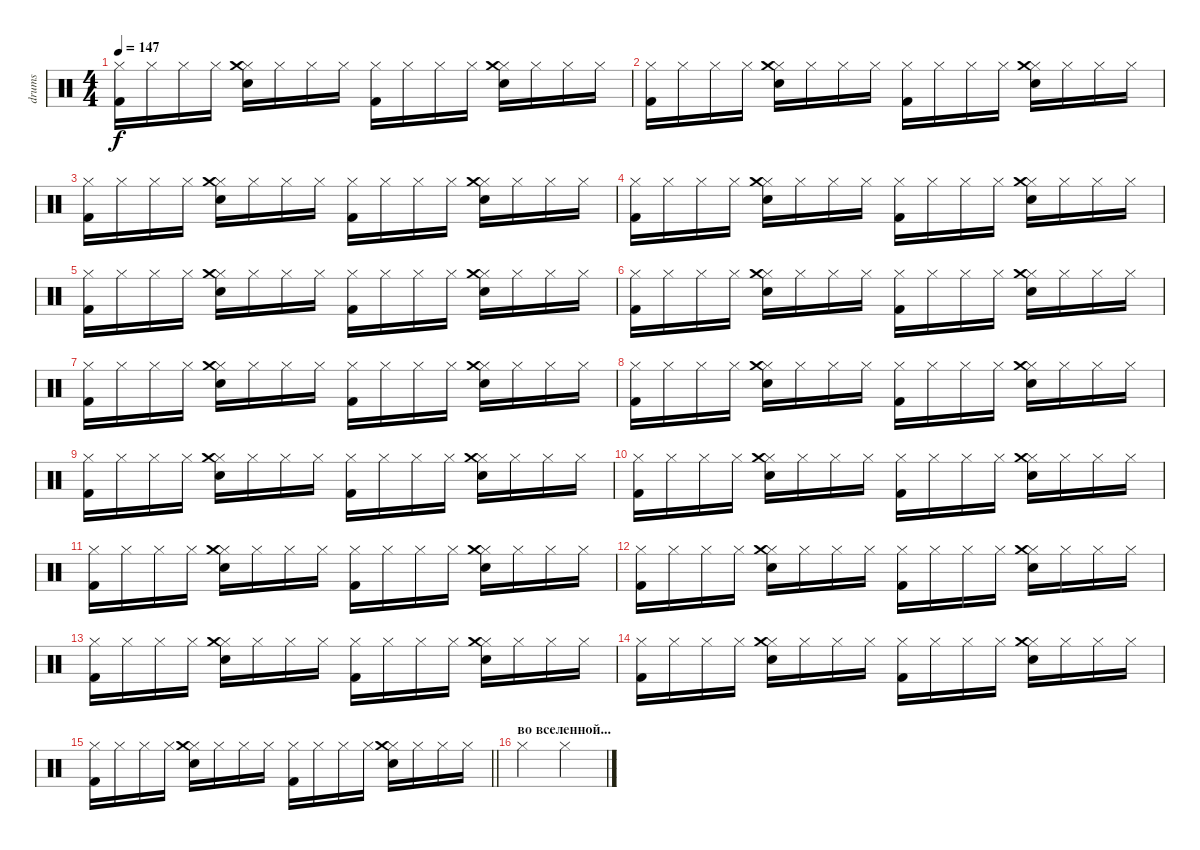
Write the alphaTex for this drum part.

\track ("drums" "drums") {instrument percussion}
\staff {score}
\articulation defaults
\ts (4 4)
\tempo 147
\clef neutral
\ks c
("Hi-Hat (closed)" "Kick (hit) 2").16{dy f} "Hi-Hat (closed)".16 "Hi-Hat (closed)".16 "Hi-Hat (closed)".16 ("Hi-Hat (closed)" "Snare (hit) 2" "Crash medium (hit)").16 "Hi-Hat (closed)".16 "Hi-Hat (closed)".16 "Hi-Hat (closed)".16 ("Hi-Hat (closed)" "Kick (hit) 2").16 "Hi-Hat (closed)".16 "Hi-Hat (closed)".16 "Hi-Hat (closed)".16 ("Hi-Hat (closed)" "Snare (hit) 2" "Crash medium (hit)").16 "Hi-Hat (closed)".16 "Hi-Hat (closed)".16 "Hi-Hat (closed)".16 |
("Hi-Hat (closed)" "Kick (hit) 2").16 "Hi-Hat (closed)".16 "Hi-Hat (closed)".16 "Hi-Hat (closed)".16 ("Hi-Hat (closed)" "Snare (hit) 2" "Crash medium (hit)").16 "Hi-Hat (closed)".16 "Hi-Hat (closed)".16 "Hi-Hat (closed)".16 ("Hi-Hat (closed)" "Kick (hit) 2").16 "Hi-Hat (closed)".16 "Hi-Hat (closed)".16 "Hi-Hat (closed)".16 ("Hi-Hat (closed)" "Snare (hit) 2" "Crash medium (hit)").16 "Hi-Hat (closed)".16 "Hi-Hat (closed)".16 "Hi-Hat (closed)".16 |
("Hi-Hat (closed)" "Kick (hit) 2").16 "Hi-Hat (closed)".16 "Hi-Hat (closed)".16 "Hi-Hat (closed)".16 ("Hi-Hat (closed)" "Snare (hit) 2" "Crash medium (hit)").16 "Hi-Hat (closed)".16 "Hi-Hat (closed)".16 "Hi-Hat (closed)".16 ("Hi-Hat (closed)" "Kick (hit) 2").16 "Hi-Hat (closed)".16 "Hi-Hat (closed)".16 "Hi-Hat (closed)".16 ("Hi-Hat (closed)" "Snare (hit) 2" "Crash medium (hit)").16 "Hi-Hat (closed)".16 "Hi-Hat (closed)".16 "Hi-Hat (closed)".16 |
("Hi-Hat (closed)" "Kick (hit) 2").16 "Hi-Hat (closed)".16 "Hi-Hat (closed)".16 "Hi-Hat (closed)".16 ("Hi-Hat (closed)" "Snare (hit) 2" "Crash medium (hit)").16 "Hi-Hat (closed)".16 "Hi-Hat (closed)".16 "Hi-Hat (closed)".16 ("Hi-Hat (closed)" "Kick (hit) 2").16 "Hi-Hat (closed)".16 "Hi-Hat (closed)".16 "Hi-Hat (closed)".16 ("Hi-Hat (closed)" "Snare (hit) 2" "Crash medium (hit)").16 "Hi-Hat (closed)".16 "Hi-Hat (closed)".16 "Hi-Hat (closed)".16 |
("Hi-Hat (closed)" "Kick (hit) 2").16 "Hi-Hat (closed)".16 "Hi-Hat (closed)".16 "Hi-Hat (closed)".16 ("Hi-Hat (closed)" "Snare (hit) 2" "Crash medium (hit)").16 "Hi-Hat (closed)".16 "Hi-Hat (closed)".16 "Hi-Hat (closed)".16 ("Hi-Hat (closed)" "Kick (hit) 2").16 "Hi-Hat (closed)".16 "Hi-Hat (closed)".16 "Hi-Hat (closed)".16 ("Hi-Hat (closed)" "Snare (hit) 2" "Crash medium (hit)").16 "Hi-Hat (closed)".16 "Hi-Hat (closed)".16 "Hi-Hat (closed)".16 |
("Hi-Hat (closed)" "Kick (hit) 2").16 "Hi-Hat (closed)".16 "Hi-Hat (closed)".16 "Hi-Hat (closed)".16 ("Hi-Hat (closed)" "Snare (hit) 2" "Crash medium (hit)").16 "Hi-Hat (closed)".16 "Hi-Hat (closed)".16 "Hi-Hat (closed)".16 ("Hi-Hat (closed)" "Kick (hit) 2").16 "Hi-Hat (closed)".16 "Hi-Hat (closed)".16 "Hi-Hat (closed)".16 ("Hi-Hat (closed)" "Snare (hit) 2" "Crash medium (hit)").16 "Hi-Hat (closed)".16 "Hi-Hat (closed)".16 "Hi-Hat (closed)".16 |
("Hi-Hat (closed)" "Kick (hit) 2").16 "Hi-Hat (closed)".16 "Hi-Hat (closed)".16 "Hi-Hat (closed)".16 ("Hi-Hat (closed)" "Snare (hit) 2" "Crash medium (hit)").16 "Hi-Hat (closed)".16 "Hi-Hat (closed)".16 "Hi-Hat (closed)".16 ("Hi-Hat (closed)" "Kick (hit) 2").16 "Hi-Hat (closed)".16 "Hi-Hat (closed)".16 "Hi-Hat (closed)".16 ("Hi-Hat (closed)" "Snare (hit) 2" "Crash medium (hit)").16 "Hi-Hat (closed)".16 "Hi-Hat (closed)".16 "Hi-Hat (closed)".16 |
("Hi-Hat (closed)" "Kick (hit) 2").16 "Hi-Hat (closed)".16 "Hi-Hat (closed)".16 "Hi-Hat (closed)".16 ("Hi-Hat (closed)" "Snare (hit) 2" "Crash medium (hit)").16 "Hi-Hat (closed)".16 "Hi-Hat (closed)".16 "Hi-Hat (closed)".16 ("Hi-Hat (closed)" "Kick (hit) 2").16 "Hi-Hat (closed)".16 "Hi-Hat (closed)".16 "Hi-Hat (closed)".16 ("Hi-Hat (closed)" "Snare (hit) 2" "Crash medium (hit)").16 "Hi-Hat (closed)".16 "Hi-Hat (closed)".16 "Hi-Hat (closed)".16 |
("Hi-Hat (closed)" "Kick (hit) 2").16 "Hi-Hat (closed)".16 "Hi-Hat (closed)".16 "Hi-Hat (closed)".16 ("Hi-Hat (closed)" "Snare (hit) 2" "Crash medium (hit)").16 "Hi-Hat (closed)".16 "Hi-Hat (closed)".16 "Hi-Hat (closed)".16 ("Hi-Hat (closed)" "Kick (hit) 2").16 "Hi-Hat (closed)".16 "Hi-Hat (closed)".16 "Hi-Hat (closed)".16 ("Hi-Hat (closed)" "Snare (hit) 2" "Crash medium (hit)").16 "Hi-Hat (closed)".16 "Hi-Hat (closed)".16 "Hi-Hat (closed)".16 |
("Hi-Hat (closed)" "Kick (hit) 2").16 "Hi-Hat (closed)".16 "Hi-Hat (closed)".16 "Hi-Hat (closed)".16 ("Hi-Hat (closed)" "Snare (hit) 2" "Crash medium (hit)").16 "Hi-Hat (closed)".16 "Hi-Hat (closed)".16 "Hi-Hat (closed)".16 ("Hi-Hat (closed)" "Kick (hit) 2").16 "Hi-Hat (closed)".16 "Hi-Hat (closed)".16 "Hi-Hat (closed)".16 ("Hi-Hat (closed)" "Snare (hit) 2" "Crash medium (hit)").16 "Hi-Hat (closed)".16 "Hi-Hat (closed)".16 "Hi-Hat (closed)".16 |
("Hi-Hat (closed)" "Kick (hit) 2").16 "Hi-Hat (closed)".16 "Hi-Hat (closed)".16 "Hi-Hat (closed)".16 ("Hi-Hat (closed)" "Snare (hit) 2" "Crash medium (hit)").16 "Hi-Hat (closed)".16 "Hi-Hat (closed)".16 "Hi-Hat (closed)".16 ("Hi-Hat (closed)" "Kick (hit) 2").16 "Hi-Hat (closed)".16 "Hi-Hat (closed)".16 "Hi-Hat (closed)".16 ("Hi-Hat (closed)" "Snare (hit) 2" "Crash medium (hit)").16 "Hi-Hat (closed)".16 "Hi-Hat (closed)".16 "Hi-Hat (closed)".16 |
("Hi-Hat (closed)" "Kick (hit) 2").16 "Hi-Hat (closed)".16 "Hi-Hat (closed)".16 "Hi-Hat (closed)".16 ("Hi-Hat (closed)" "Snare (hit) 2" "Crash medium (hit)").16 "Hi-Hat (closed)".16 "Hi-Hat (closed)".16 "Hi-Hat (closed)".16 ("Hi-Hat (closed)" "Kick (hit) 2").16 "Hi-Hat (closed)".16 "Hi-Hat (closed)".16 "Hi-Hat (closed)".16 ("Hi-Hat (closed)" "Snare (hit) 2" "Crash medium (hit)").16 "Hi-Hat (closed)".16 "Hi-Hat (closed)".16 "Hi-Hat (closed)".16 |
("Hi-Hat (closed)" "Kick (hit) 2").16 "Hi-Hat (closed)".16 "Hi-Hat (closed)".16 "Hi-Hat (closed)".16 ("Hi-Hat (closed)" "Snare (hit) 2" "Crash medium (hit)").16 "Hi-Hat (closed)".16 "Hi-Hat (closed)".16 "Hi-Hat (closed)".16 ("Hi-Hat (closed)" "Kick (hit) 2").16 "Hi-Hat (closed)".16 "Hi-Hat (closed)".16 "Hi-Hat (closed)".16 ("Hi-Hat (closed)" "Snare (hit) 2" "Crash medium (hit)").16 "Hi-Hat (closed)".16 "Hi-Hat (closed)".16 "Hi-Hat (closed)".16 |
("Hi-Hat (closed)" "Kick (hit) 2").16 "Hi-Hat (closed)".16 "Hi-Hat (closed)".16 "Hi-Hat (closed)".16 ("Hi-Hat (closed)" "Snare (hit) 2" "Crash medium (hit)").16 "Hi-Hat (closed)".16 "Hi-Hat (closed)".16 "Hi-Hat (closed)".16 ("Hi-Hat (closed)" "Kick (hit) 2").16 "Hi-Hat (closed)".16 "Hi-Hat (closed)".16 "Hi-Hat (closed)".16 ("Hi-Hat (closed)" "Snare (hit) 2" "Crash medium (hit)").16 "Hi-Hat (closed)".16 "Hi-Hat (closed)".16 "Hi-Hat (closed)".16 |
\barLineRight lightlight
("Hi-Hat (closed)" "Kick (hit) 2").16 "Hi-Hat (closed)".16 "Hi-Hat (closed)".16 "Hi-Hat (closed)".16 ("Hi-Hat (closed)" "Snare (hit) 2" "Crash medium (hit)").16 "Hi-Hat (closed)".16 "Hi-Hat (closed)".16 "Hi-Hat (closed)".16 ("Hi-Hat (closed)" "Kick (hit) 2").16 "Hi-Hat (closed)".16 "Hi-Hat (closed)".16 "Hi-Hat (closed)".16 ("Hi-Hat (closed)" "Snare (hit) 2" "Crash medium (hit)").16 "Hi-Hat (closed)".16 "Hi-Hat (closed)".16 "Hi-Hat (closed)".16 |
\section ("" "во вселенной...")
"Hi-Hat (closed)".2 "Hi-Hat (closed)".2
